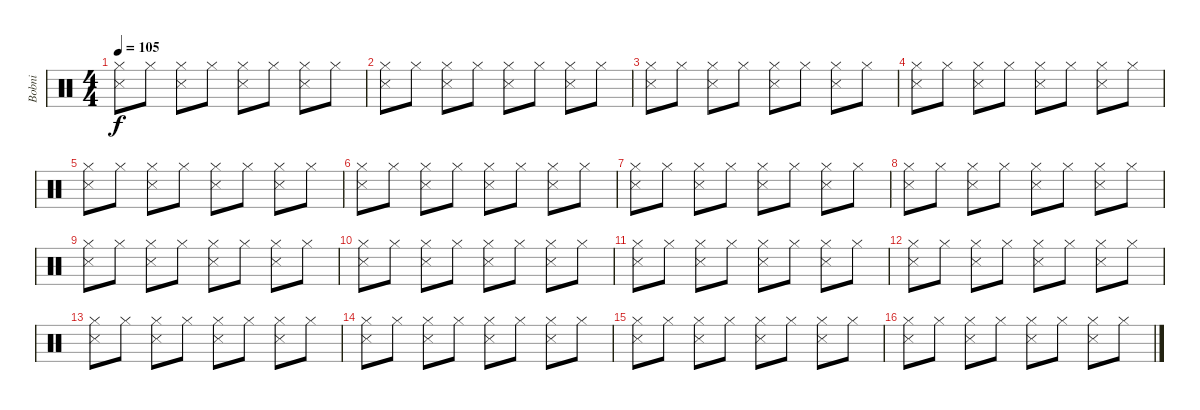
\track ("Bobni" "Bobni") {instrument percussion}
\staff {score}
\articulation defaults
\ts (4 4)
\tempo 105
\clef neutral
\ks c
("Hi-Hat (closed)" "Snare (side stick) 3").8{dy f} "Hi-Hat (closed)".8 ("Hi-Hat (closed)" "Snare (side stick) 3").8 "Hi-Hat (closed)".8 ("Hi-Hat (closed)" "Snare (side stick) 3").8 "Hi-Hat (closed)".8 ("Hi-Hat (closed)" "Snare (side stick) 3").8 "Hi-Hat (closed)".8 |
("Hi-Hat (closed)" "Snare (side stick) 3").8 "Hi-Hat (closed)".8 ("Hi-Hat (closed)" "Snare (side stick) 3").8 "Hi-Hat (closed)".8 ("Hi-Hat (closed)" "Snare (side stick) 3").8 "Hi-Hat (closed)".8 ("Hi-Hat (closed)" "Snare (side stick) 3").8 "Hi-Hat (closed)".8 |
("Hi-Hat (closed)" "Snare (side stick) 3").8 "Hi-Hat (closed)".8 ("Hi-Hat (closed)" "Snare (side stick) 3").8 "Hi-Hat (closed)".8 ("Hi-Hat (closed)" "Snare (side stick) 3").8 "Hi-Hat (closed)".8 ("Hi-Hat (closed)" "Snare (side stick) 3").8 "Hi-Hat (closed)".8 |
("Hi-Hat (closed)" "Snare (side stick) 3").8 "Hi-Hat (closed)".8 ("Hi-Hat (closed)" "Snare (side stick) 3").8 "Hi-Hat (closed)".8 ("Hi-Hat (closed)" "Snare (side stick) 3").8 "Hi-Hat (closed)".8 ("Hi-Hat (closed)" "Snare (side stick) 3").8 "Hi-Hat (closed)".8 |
("Hi-Hat (closed)" "Snare (side stick) 3").8 "Hi-Hat (closed)".8 ("Hi-Hat (closed)" "Snare (side stick) 3").8 "Hi-Hat (closed)".8 ("Hi-Hat (closed)" "Snare (side stick) 3").8 "Hi-Hat (closed)".8 ("Hi-Hat (closed)" "Snare (side stick) 3").8 "Hi-Hat (closed)".8 |
("Hi-Hat (closed)" "Snare (side stick) 3").8 "Hi-Hat (closed)".8 ("Hi-Hat (closed)" "Snare (side stick) 3").8 "Hi-Hat (closed)".8 ("Hi-Hat (closed)" "Snare (side stick) 3").8 "Hi-Hat (closed)".8 ("Hi-Hat (closed)" "Snare (side stick) 3").8 "Hi-Hat (closed)".8 |
("Hi-Hat (closed)" "Snare (side stick) 3").8 "Hi-Hat (closed)".8 ("Hi-Hat (closed)" "Snare (side stick) 3").8 "Hi-Hat (closed)".8 ("Hi-Hat (closed)" "Snare (side stick) 3").8 "Hi-Hat (closed)".8 ("Hi-Hat (closed)" "Snare (side stick) 3").8 "Hi-Hat (closed)".8 |
("Hi-Hat (closed)" "Snare (side stick) 3").8 "Hi-Hat (closed)".8 ("Hi-Hat (closed)" "Snare (side stick) 3").8 "Hi-Hat (closed)".8 ("Hi-Hat (closed)" "Snare (side stick) 3").8 "Hi-Hat (closed)".8 ("Hi-Hat (closed)" "Snare (side stick) 3").8 "Hi-Hat (closed)".8 |
("Hi-Hat (closed)" "Snare (side stick) 3").8 "Hi-Hat (closed)".8 ("Hi-Hat (closed)" "Snare (side stick) 3").8 "Hi-Hat (closed)".8 ("Hi-Hat (closed)" "Snare (side stick) 3").8 "Hi-Hat (closed)".8 ("Hi-Hat (closed)" "Snare (side stick) 3").8 "Hi-Hat (closed)".8 |
("Hi-Hat (closed)" "Snare (side stick) 3").8 "Hi-Hat (closed)".8 ("Hi-Hat (closed)" "Snare (side stick) 3").8 "Hi-Hat (closed)".8 ("Hi-Hat (closed)" "Snare (side stick) 3").8 "Hi-Hat (closed)".8 ("Hi-Hat (closed)" "Snare (side stick) 3").8 "Hi-Hat (closed)".8 |
("Hi-Hat (closed)" "Snare (side stick) 3").8 "Hi-Hat (closed)".8 ("Hi-Hat (closed)" "Snare (side stick) 3").8 "Hi-Hat (closed)".8 ("Hi-Hat (closed)" "Snare (side stick) 3").8 "Hi-Hat (closed)".8 ("Hi-Hat (closed)" "Snare (side stick) 3").8 "Hi-Hat (closed)".8 |
("Hi-Hat (closed)" "Snare (side stick) 3").8 "Hi-Hat (closed)".8 ("Hi-Hat (closed)" "Snare (side stick) 3").8 "Hi-Hat (closed)".8 ("Hi-Hat (closed)" "Snare (side stick) 3").8 "Hi-Hat (closed)".8 ("Hi-Hat (closed)" "Snare (side stick) 3").8 "Hi-Hat (closed)".8 |
("Hi-Hat (closed)" "Snare (side stick) 3").8 "Hi-Hat (closed)".8 ("Hi-Hat (closed)" "Snare (side stick) 3").8 "Hi-Hat (closed)".8 ("Hi-Hat (closed)" "Snare (side stick) 3").8 "Hi-Hat (closed)".8 ("Hi-Hat (closed)" "Snare (side stick) 3").8 "Hi-Hat (closed)".8 |
("Hi-Hat (closed)" "Snare (side stick) 3").8 "Hi-Hat (closed)".8 ("Hi-Hat (closed)" "Snare (side stick) 3").8 "Hi-Hat (closed)".8 ("Hi-Hat (closed)" "Snare (side stick) 3").8 "Hi-Hat (closed)".8 ("Hi-Hat (closed)" "Snare (side stick) 3").8 "Hi-Hat (closed)".8 |
("Hi-Hat (closed)" "Snare (side stick) 3").8 "Hi-Hat (closed)".8 ("Hi-Hat (closed)" "Snare (side stick) 3").8 "Hi-Hat (closed)".8 ("Hi-Hat (closed)" "Snare (side stick) 3").8 "Hi-Hat (closed)".8 ("Hi-Hat (closed)" "Snare (side stick) 3").8 "Hi-Hat (closed)".8 |
("Hi-Hat (closed)" "Snare (side stick) 3").8 "Hi-Hat (closed)".8 ("Hi-Hat (closed)" "Snare (side stick) 3").8 "Hi-Hat (closed)".8 ("Hi-Hat (closed)" "Snare (side stick) 3").8 "Hi-Hat (closed)".8 ("Hi-Hat (closed)" "Snare (side stick) 3").8 "Hi-Hat (closed)".8
